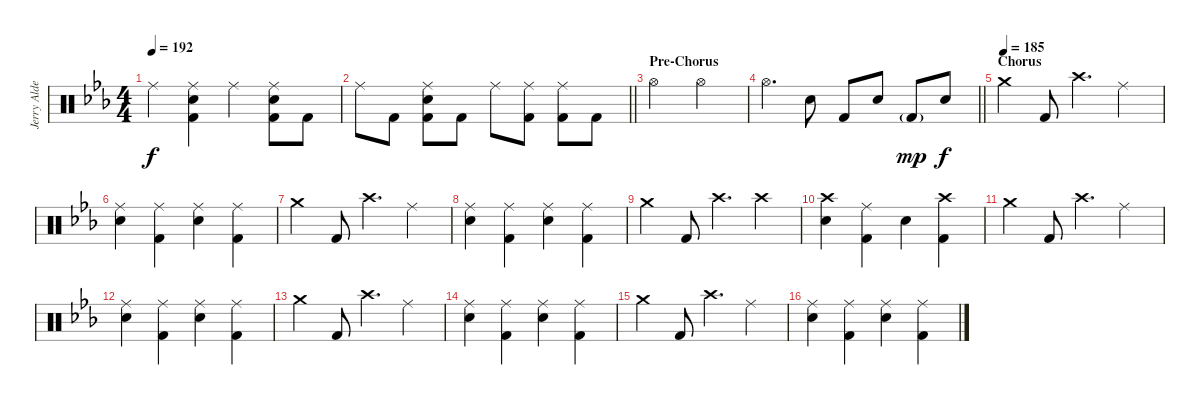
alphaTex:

\track ("Jerry Alder - Drums" "Jerry Alde") {instrument percussion}
\staff {score}
\articulation defaults
\ts (4 4)
\tempo 192
\clef neutral
\ks eb "Ride (middle)".4{dy f}
("Ride (middle)" "Snare (hit) 2" "Kick (hit) 2").4 "Ride (middle)".4 ("Ride (middle)" "Snare (hit) 2" "Kick (hit) 2").8 "Kick (hit) 2".8 |
\barLineRight lightlight "Ride (middle)".8 "Kick (hit) 2".8
("Ride (middle)" "Snare (hit) 2" "Kick (hit) 2").8 "Kick (hit) 2".8 "Ride (middle)".8 ("Ride (middle)" "Kick (hit) 2").8 ("Ride (middle)" "Kick (hit) 2").8 "Kick (hit) 2".8 |
\section ("" "Pre-Chorus")
"Hi-Hat (open)".2 "Hi-Hat (open)".2 |
\barLineRight lightlight "Hi-Hat (open)".4{d} "Snare (hit) 2".8 "Kick (hit) 2".8 "Snare (hit) 2".8 "Kick (hit) 2"{g}.8{dy mp} "Snare (hit) 2".8{dy f}
|
\section ("" "Chorus")
\tempo (185)
"Crash medium (hit)".4{volume 15} "Kick (hit) 2".8 "Crash high (hit)".4{d} "Ride (middle)".4 |
("Ride (middle)" "Snare (hit) 2").4 ("Ride (middle)" "Kick (hit) 2").4 ("Ride (middle)" "Snare (hit) 2").4 ("Ride (middle)" "Kick (hit) 2").4 |
"Crash medium (hit)".4 "Kick (hit) 2".8 "Crash high (hit)".4{d} "Ride (middle)".4 |
("Ride (middle)" "Snare (hit) 2").4 ("Ride (middle)" "Kick (hit) 2").4 ("Ride (middle)" "Snare (hit) 2").4 ("Ride (middle)" "Kick (hit) 2").4 |
"Crash medium (hit)".4 "Kick (hit) 2".8 "Crash high (hit)".4{d} "Crash high (hit)".4 |
("Crash high (hit)" "Snare (hit) 2").4 ("Ride (middle)" "Kick (hit) 2").4 "Snare (hit) 2".4 ("Crash high (hit)" "Kick (hit) 2").4 |
"Crash medium (hit)".4 "Kick (hit) 2".8 "Crash high (hit)".4{d} "Ride (middle)".4 |
("Ride (middle)" "Snare (hit) 2").4 ("Ride (middle)" "Kick (hit) 2").4 ("Ride (middle)" "Snare (hit) 2").4 ("Ride (middle)" "Kick (hit) 2").4 |
"Crash medium (hit)".4 "Kick (hit) 2".8 "Crash high (hit)".4{d} "Ride (middle)".4 |
("Ride (middle)" "Snare (hit) 2").4 ("Ride (middle)" "Kick (hit) 2").4 ("Ride (middle)" "Snare (hit) 2").4 ("Ride (middle)" "Kick (hit) 2").4 |
"Crash medium (hit)".4 "Kick (hit) 2".8 "Crash high (hit)".4{d} "Ride (middle)".4 |
("Ride (middle)" "Snare (hit) 2").4 ("Ride (middle)" "Kick (hit) 2").4 ("Ride (middle)" "Snare (hit) 2").4 ("Ride (middle)" "Kick (hit) 2").4
